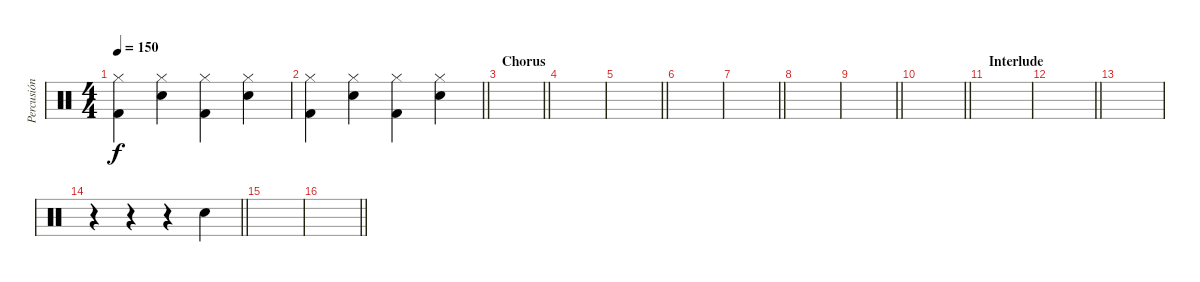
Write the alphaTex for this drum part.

\track ("Percusión" "Percusión") {instrument percussion}
\staff {score}
\articulation defaults
\ts (4 4)
\tempo 150
\clef neutral
\ks c
("Hi-Hat (closed)" "Kick (hit) 2").4{dy f} ("Hi-Hat (closed)" "Snare (hit) 2").4 ("Hi-Hat (closed)" "Kick (hit) 2").4 ("Hi-Hat (closed)" "Snare (hit) 2").4 |
\barLineRight lightlight
("Hi-Hat (closed)" "Kick (hit) 2").4 ("Hi-Hat (closed)" "Snare (hit) 2").4 ("Hi-Hat (closed)" "Kick (hit) 2").4 ("Hi-Hat (closed)" "Snare (hit) 2").4 |
\section ("" "Chorus")
\barLineRight lightlight
|
|
\barLineRight lightlight
|
|
\barLineRight lightlight
|
|
\barLineRight lightlight
|
\barLineRight lightlight
|
\section ("" "Interlude")
|
\barLineRight lightlight
|
|
\barLineRight lightlight
r.4 r.4 r.4 "Snare (hit) 2".4 |
|
\barLineRight lightlight
